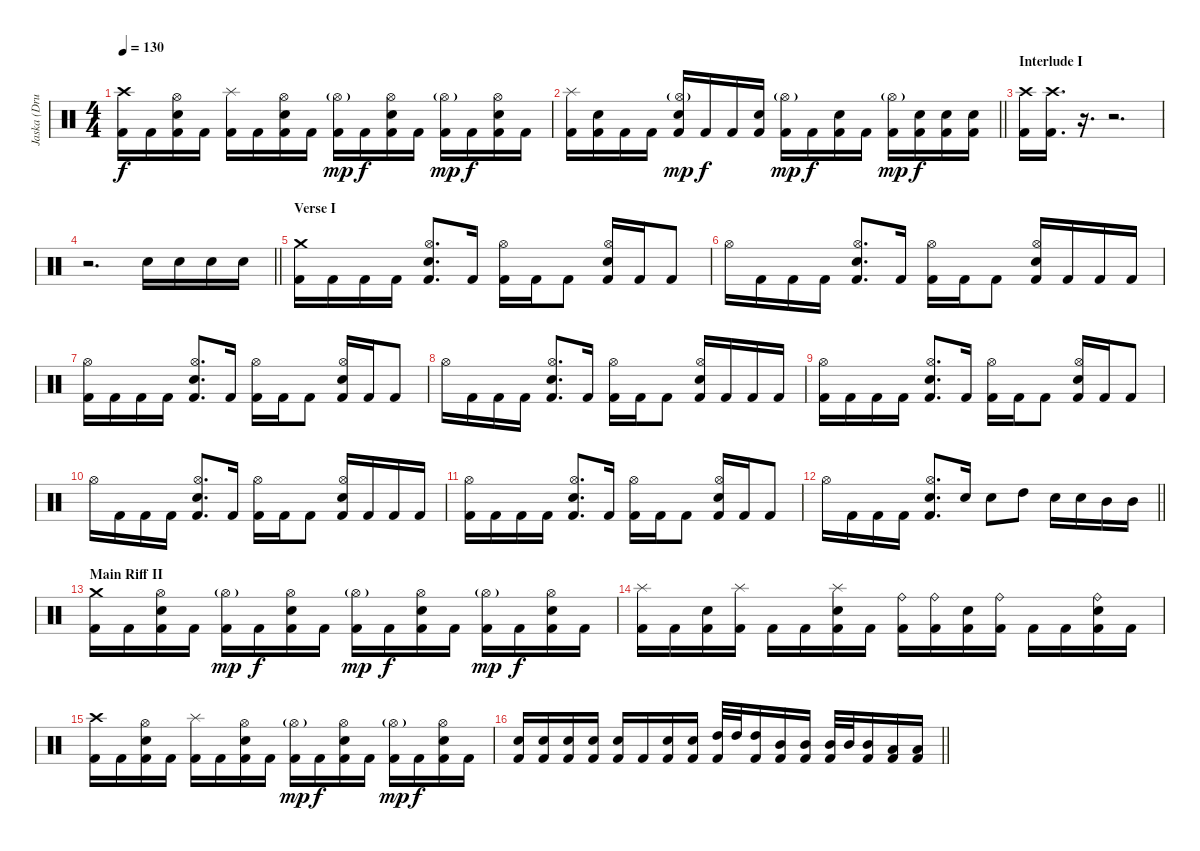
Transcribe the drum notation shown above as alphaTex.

\track ("Jaska (Drums)" "Jaska (Dru") {instrument percussion}
\staff {score}
\articulation defaults
\ts (4 4)
\tempo 130
\clef neutral
\ks c
("Crash high (hit)" "Kick (hit) 2").16{dy f} "Kick (hit) 2".16 ("Hi-Hat (open)" "Electric Snare (hit)" "Kick (hit) 2").16 "Kick (hit) 2".16 ("Splash (hit)" "Kick (hit) 2").16 "Kick (hit) 2".16 ("Hi-Hat (open)" "Electric Snare (hit)" "Kick (hit) 2").16 "Kick (hit) 2".16 ("Hi-Hat (open)"{g} "Kick (hit) 2").16{dy mp} "Kick (hit) 2".16{dy f} ("Hi-Hat (open)" "Electric Snare (hit)" "Kick (hit) 2").16 "Kick (hit) 2".16 ("Hi-Hat (open)"{g} "Kick (hit) 2").16{dy mp} "Kick (hit) 2".16{dy f} ("Hi-Hat (open)" "Electric Snare (hit)" "Kick (hit) 2").16 "Kick (hit) 2".16 |
\barLineRight lightlight
("Splash (hit)" "Kick (hit) 2").16 ("Electric Snare (hit)" "Kick (hit) 2").16 "Kick (hit) 2".16 "Kick (hit) 2".16 ("Hi-Hat (open)"{g} "Electric Snare (hit)" "Kick (hit) 2").16{dy mp} "Kick (hit) 2".16{dy f} "Kick (hit) 2".16 ("Electric Snare (hit)" "Kick (hit) 2").16 ("Hi-Hat (open)"{g} "Kick (hit) 2").16{dy mp} "Kick (hit) 2".16{dy f} ("Electric Snare (hit)" "Kick (hit) 2").16 "Kick (hit) 2".16 ("Hi-Hat (open)"{g} "Kick (hit) 2").16{dy mp} ("Electric Snare (hit)" "Kick (hit) 2").16{dy f} ("Electric Snare (hit)" "Kick (hit) 2").16 ("Electric Snare (hit)" "Kick (hit) 2").16 |
\section ("" "Interlude I")
("Crash high (hit)" "Kick (hit) 2").16 ("Crash high (hit)" "Kick (hit) 2").16{d} r.16{d volume 0} r.2{d} |
\barLineRight lightlight
r.2{d} "Electric Snare (hit)".16{volume 16} "Electric Snare (hit)".16 "Electric Snare (hit)".16 "Electric Snare (hit)".16 |
\section ("" "Verse I")
("Crash medium (hit)" "Kick (hit) 2").16 "Kick (hit) 2".16 "Kick (hit) 2".16 "Kick (hit) 2".16 ("Hi-Hat (open)" "Electric Snare (hit)" "Kick (hit) 2").8{d} "Kick (hit) 2".16 ("Hi-Hat (open)" "Kick (hit) 2").16 "Kick (hit) 2".16 "Kick (hit) 2".8 ("Hi-Hat (open)" "Electric Snare (hit)" "Kick (hit) 2").16 "Kick (hit) 2".16 "Kick (hit) 2".8 |
"Hi-Hat (open)".16 "Kick (hit) 2".16 "Kick (hit) 2".16 "Kick (hit) 2".16 ("Hi-Hat (open)" "Electric Snare (hit)" "Kick (hit) 2").8{d} "Kick (hit) 2".16 ("Hi-Hat (open)" "Kick (hit) 2").16 "Kick (hit) 2".16 "Kick (hit) 2".8 ("Hi-Hat (open)" "Electric Snare (hit)" "Kick (hit) 2").16 "Kick (hit) 2".16 "Kick (hit) 2".16 "Kick (hit) 2".16 |
("Hi-Hat (open)" "Kick (hit) 2").16 "Kick (hit) 2".16 "Kick (hit) 2".16 "Kick (hit) 2".16 ("Hi-Hat (open)" "Electric Snare (hit)" "Kick (hit) 2").8{d} "Kick (hit) 2".16 ("Hi-Hat (open)" "Kick (hit) 2").16 "Kick (hit) 2".16 "Kick (hit) 2".8 ("Hi-Hat (open)" "Electric Snare (hit)" "Kick (hit) 2").16 "Kick (hit) 2".16 "Kick (hit) 2".8 |
"Hi-Hat (open)".16 "Kick (hit) 2".16 "Kick (hit) 2".16 "Kick (hit) 2".16 ("Hi-Hat (open)" "Electric Snare (hit)" "Kick (hit) 2").8{d} "Kick (hit) 2".16 ("Hi-Hat (open)" "Kick (hit) 2").16 "Kick (hit) 2".16 "Kick (hit) 2".8 ("Hi-Hat (open)" "Electric Snare (hit)" "Kick (hit) 2").16 "Kick (hit) 2".16 "Kick (hit) 2".16 "Kick (hit) 2".16 |
("Hi-Hat (open)" "Kick (hit) 2").16 "Kick (hit) 2".16 "Kick (hit) 2".16 "Kick (hit) 2".16 ("Hi-Hat (open)" "Electric Snare (hit)" "Kick (hit) 2").8{d} "Kick (hit) 2".16 ("Hi-Hat (open)" "Kick (hit) 2").16 "Kick (hit) 2".16 "Kick (hit) 2".8 ("Hi-Hat (open)" "Electric Snare (hit)" "Kick (hit) 2").16 "Kick (hit) 2".16 "Kick (hit) 2".8 |
"Hi-Hat (open)".16 "Kick (hit) 2".16 "Kick (hit) 2".16 "Kick (hit) 2".16 ("Hi-Hat (open)" "Electric Snare (hit)" "Kick (hit) 2").8{d} "Kick (hit) 2".16 ("Hi-Hat (open)" "Kick (hit) 2").16 "Kick (hit) 2".16 "Kick (hit) 2".8 ("Hi-Hat (open)" "Electric Snare (hit)" "Kick (hit) 2").16 "Kick (hit) 2".16 "Kick (hit) 2".16 "Kick (hit) 2".16 |
("Hi-Hat (open)" "Kick (hit) 2").16 "Kick (hit) 2".16 "Kick (hit) 2".16 "Kick (hit) 2".16 ("Hi-Hat (open)" "Electric Snare (hit)" "Kick (hit) 2").8{d} "Kick (hit) 2".16 ("Hi-Hat (open)" "Kick (hit) 2").16 "Kick (hit) 2".16 "Kick (hit) 2".8 ("Hi-Hat (open)" "Electric Snare (hit)" "Kick (hit) 2").16 "Kick (hit) 2".16 "Kick (hit) 2".8 |
\barLineRight lightlight "Hi-Hat (open)".16 "Kick (hit) 2".16 "Kick (hit) 2".16 "Kick (hit) 2".16
("Hi-Hat (open)" "Electric Snare (hit)" "Kick (hit) 2").8{d} "Electric Snare (hit)".16 "Electric Snare (hit)".8 "High Tom (hit)".8 "Electric Snare (hit)".16 "Electric Snare (hit)".16 "Mid Tom (hit)".16 "Mid Tom (hit)".16 |
\section ("" "Main Riff II")
("Crash medium (hit)" "Kick (hit) 2").16 "Kick (hit) 2".16 ("Hi-Hat (open)" "Electric Snare (hit)" "Kick (hit) 2").16 "Kick (hit) 2".16 ("Hi-Hat (open)"{g} "Kick (hit) 2").16{dy mp} "Kick (hit) 2".16{dy f} ("Hi-Hat (open)" "Electric Snare (hit)" "Kick (hit) 2").16 "Kick (hit) 2".16 ("Hi-Hat (open)"{g} "Kick (hit) 2").16{dy mp} "Kick (hit) 2".16{dy f} ("Hi-Hat (open)" "Electric Snare (hit)" "Kick (hit) 2").16 "Kick (hit) 2".16 ("Hi-Hat (open)"{g} "Kick (hit) 2").16{dy mp} "Kick (hit) 2".16{dy f} ("Hi-Hat (open)" "Electric Snare (hit)" "Kick (hit) 2").16 "Kick (hit) 2".16 |
("Splash (hit)" "Kick (hit) 2").16 "Kick (hit) 2".16 ("Electric Snare (hit)" "Kick (hit) 2").16 ("Splash (hit)" "Kick (hit) 2").16 "Kick (hit) 2".16 "Kick (hit) 2".16 ("Splash (hit)" "Electric Snare (hit)" "Kick (hit) 2").16 "Kick (hit) 2".16 ("Ride (bell)" "Kick (hit) 2").16 ("Ride (bell)" "Kick (hit) 2").16 ("Electric Snare (hit)" "Kick (hit) 2").16 ("Ride (bell)" "Kick (hit) 2").16 "Kick (hit) 2".16 "Kick (hit) 2".16 ("Ride (bell)" "Electric Snare (hit)" "Kick (hit) 2").16 "Kick (hit) 2".16 |
("Crash high (hit)" "Kick (hit) 2").16 "Kick (hit) 2".16 ("Hi-Hat (open)" "Electric Snare (hit)" "Kick (hit) 2").16 "Kick (hit) 2".16 ("Splash (hit)" "Kick (hit) 2").16 "Kick (hit) 2".16 ("Hi-Hat (open)" "Electric Snare (hit)" "Kick (hit) 2").16 "Kick (hit) 2".16 ("Hi-Hat (open)"{g} "Kick (hit) 2").16{dy mp} "Kick (hit) 2".16{dy f} ("Hi-Hat (open)" "Electric Snare (hit)" "Kick (hit) 2").16 "Kick (hit) 2".16 ("Hi-Hat (open)"{g} "Kick (hit) 2").16{dy mp} "Kick (hit) 2".16{dy f} ("Hi-Hat (open)" "Electric Snare (hit)" "Kick (hit) 2").16 "Kick (hit) 2".16 |
\barLineRight lightlight
("Electric Snare (hit)" "Kick (hit) 2").16 ("Electric Snare (hit)" "Kick (hit) 2").16 ("Electric Snare (hit)" "Kick (hit) 2").16 ("Electric Snare (hit)" "Kick (hit) 2").16 ("Electric Snare (hit)" "Kick (hit) 2").16 "Kick (hit) 2".16 ("Electric Snare (hit)" "Kick (hit) 2").16 ("Electric Snare (hit)" "Kick (hit) 2").16 ("High Tom (hit)" "Kick (hit) 2").32 "High Tom (hit)".32 ("High Tom (hit)" "Kick (hit) 2").16 ("Mid Tom (hit)" "Kick (hit) 2").16 ("Mid Tom (hit)" "Kick (hit) 2").16 ("Mid Tom (hit)" "Kick (hit) 2").32 "Mid Tom (hit)".32 ("Mid Tom (hit)" "Kick (hit) 2").16 ("Low Tom (hit)" "Kick (hit) 2").16 ("Low Tom (hit)" "Kick (hit) 2").16
